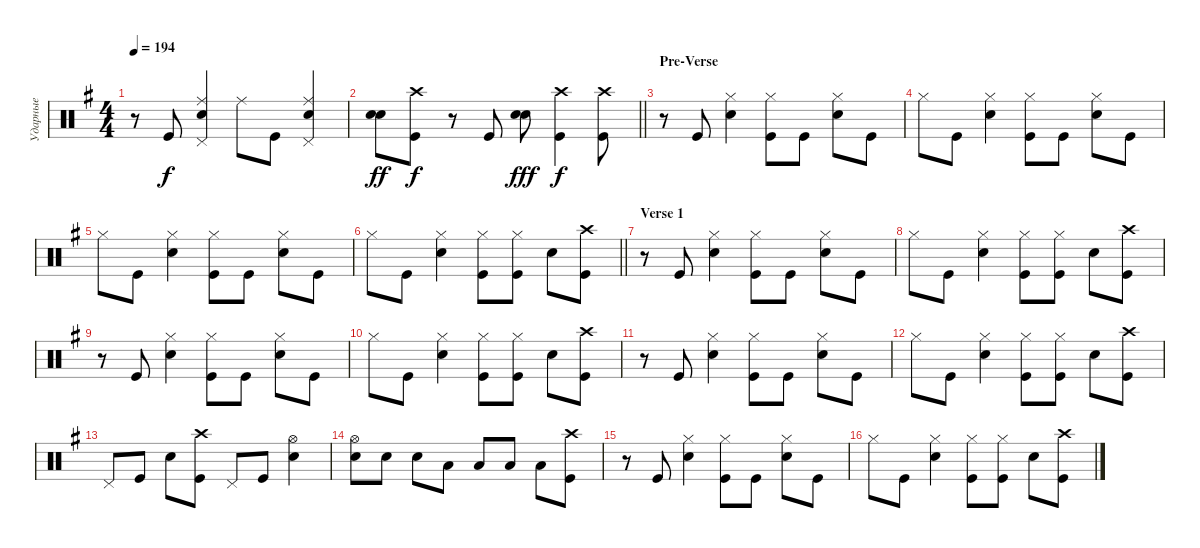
\track ("Ударные" "Ударные") {instrument percussion}
\staff {score}
\articulation defaults
\ts (4 4)
\tempo 194
\clef neutral
\ks eminor
r.8{dy f} "Kick (hit)".8 ("Ride (middle)" "Snare (hit) 2" "Pedal Hi-Hat (hit)").4 "Ride (middle)".8 "Kick (hit)".8 ("Pedal Hi-Hat (hit)" "Snare (hit) 2" "Ride (middle)").4 |
\barLineRight lightlight
("Snare (hit) 2" "Snare (hit) 2").8{bd 240 dy ff} ("Kick (hit)" "Crash high (hit)").8{dy f} r.8 "Kick (hit)".8 ("Snare (hit) 2" "Snare (hit) 2").8{bd 240 dy fff} ("Kick (hit)" "Crash high (hit)").4{dy f} ("Kick (hit)" "Crash high (hit)").8 |
\section ("" "Pre-Verse")
r.8 "Kick (hit)".8 ("Snare (hit) 2" "Hi-Hat (closed)").4 ("Kick (hit)" "Hi-Hat (closed)").8 "Kick (hit)".8 ("Snare (hit) 2" "Hi-Hat (closed)").8 "Kick (hit)".8 |
"Hi-Hat (closed)".8 "Kick (hit)".8 ("Snare (hit) 2" "Hi-Hat (closed)").4 ("Kick (hit)" "Hi-Hat (closed)").8 "Kick (hit)".8 ("Snare (hit) 2" "Hi-Hat (closed)").8 "Kick (hit)".8 |
"Hi-Hat (closed)".8 "Kick (hit)".8 ("Snare (hit) 2" "Hi-Hat (closed)").4 ("Kick (hit)" "Hi-Hat (closed)").8 "Kick (hit)".8 ("Snare (hit) 2" "Hi-Hat (closed)").8 "Kick (hit)".8 |
\barLineRight lightlight "Hi-Hat (closed)".8 "Kick (hit)".8
("Snare (hit) 2" "Hi-Hat (closed)").4 ("Kick (hit)" "Hi-Hat (closed)").8 ("Kick (hit)" "Hi-Hat (closed)").8 "Snare (hit) 2".8 ("Kick (hit)" "Crash high (hit)").8 |
\section ("" "Verse 1")
r.8 "Kick (hit)".8 ("Snare (hit) 2" "Hi-Hat (closed)").4 ("Kick (hit)" "Hi-Hat (closed)").8 "Kick (hit)".8 ("Snare (hit) 2" "Hi-Hat (closed)").8 "Kick (hit)".8 |
"Hi-Hat (closed)".8 "Kick (hit)".8 ("Snare (hit) 2" "Hi-Hat (closed)").4 ("Kick (hit)" "Hi-Hat (closed)").8 ("Kick (hit)" "Hi-Hat (closed)").8 "Snare (hit) 2".8 ("Kick (hit)" "Crash high (hit)").8 |
r.8 "Kick (hit)".8 ("Snare (hit) 2" "Hi-Hat (closed)").4 ("Kick (hit)" "Hi-Hat (closed)").8 "Kick (hit)".8 ("Snare (hit) 2" "Hi-Hat (closed)").8 "Kick (hit)".8 |
"Hi-Hat (closed)".8 "Kick (hit)".8 ("Snare (hit) 2" "Hi-Hat (closed)").4 ("Kick (hit)" "Hi-Hat (closed)").8 ("Kick (hit)" "Hi-Hat (closed)").8 "Snare (hit) 2".8 ("Kick (hit)" "Crash high (hit)").8 |
r.8 "Kick (hit)".8 ("Snare (hit) 2" "Hi-Hat (closed)").4 ("Kick (hit)" "Hi-Hat (closed)").8 "Kick (hit)".8 ("Snare (hit) 2" "Hi-Hat (closed)").8 "Kick (hit)".8 |
"Hi-Hat (closed)".8 "Kick (hit)".8 ("Snare (hit) 2" "Hi-Hat (closed)").4 ("Kick (hit)" "Hi-Hat (closed)").8 ("Kick (hit)" "Hi-Hat (closed)").8 "Snare (hit) 2".8 ("Kick (hit)" "Crash high (hit)").8 |
"Pedal Hi-Hat (hit)".8 "Kick (hit)".8 "Snare (hit) 2".8 ("Kick (hit)" "Crash high (hit)").8 "Pedal Hi-Hat (hit)".8 "Kick (hit)".8 ("Snare (hit) 2" "Hi-Hat (open)").4 |
("Snare (hit) 2" "Hi-Hat (open)").8 "Snare (hit) 2".8 "Snare (hit) 2".8 "Low Tom (hit)".8 "Low Tom (hit)".8 "Low Tom (hit)".8 "Low Tom (hit)".8 ("Kick (hit)" "Crash high (hit)").8 |
r.8 "Kick (hit)".8 ("Snare (hit) 2" "Hi-Hat (closed)").4 ("Kick (hit)" "Hi-Hat (closed)").8 "Kick (hit)".8 ("Snare (hit) 2" "Hi-Hat (closed)").8 "Kick (hit)".8 |
"Hi-Hat (closed)".8 "Kick (hit)".8 ("Snare (hit) 2" "Hi-Hat (closed)").4 ("Kick (hit)" "Hi-Hat (closed)").8 ("Kick (hit)" "Hi-Hat (closed)").8 "Snare (hit) 2".8 ("Kick (hit)" "Crash high (hit)").8
